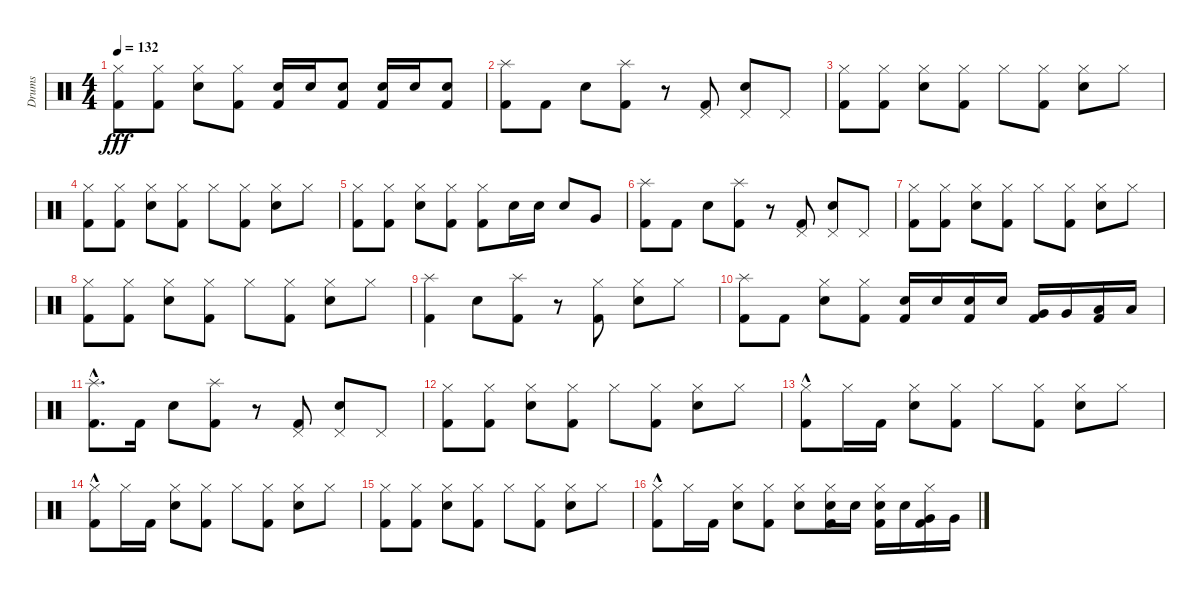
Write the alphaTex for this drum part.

\track ("Drums" "Drums") {instrument percussion}
\staff {score}
\articulation defaults
\ts (4 4)
\tempo 132
\clef neutral
\ks c
("Hi-Hat (closed)" "Kick (hit) 2").8{dy fff} ("Hi-Hat (closed)" "Kick (hit) 2").8 ("Hi-Hat (closed)" "Electric Snare (hit)").8 ("Hi-Hat (closed)" "Kick (hit) 2").8 ("Electric Snare (hit)" "Kick (hit) 2").16 "Electric Snare (hit)".16 ("Kick (hit) 2" "Electric Snare (hit)").8 ("Electric Snare (hit)" "Kick (hit) 2").16 "Electric Snare (hit)".16 ("Kick (hit) 2" "Electric Snare (hit)").8 |
("Kick (hit) 2" "Splash (hit)").8 "Kick (hit) 2".8 "Electric Snare (hit)".8 ("Splash (hit)" "Kick (hit) 2").8 r.8 ("Kick (hit) 2" "Pedal Hi-Hat (hit)").8 ("Electric Snare (hit)" "Pedal Hi-Hat (hit)").8 "Pedal Hi-Hat (hit)".8 |
("Hi-Hat (closed)" "Kick (hit) 2").8 ("Hi-Hat (closed)" "Kick (hit) 2").8 ("Hi-Hat (closed)" "Electric Snare (hit)").8 ("Hi-Hat (closed)" "Kick (hit) 2").8 "Hi-Hat (closed)".8 ("Hi-Hat (closed)" "Kick (hit) 2").8 ("Hi-Hat (closed)" "Electric Snare (hit)").8 "Hi-Hat (closed)".8 |
("Hi-Hat (closed)" "Kick (hit) 2").8 ("Hi-Hat (closed)" "Kick (hit) 2").8 ("Hi-Hat (closed)" "Electric Snare (hit)").8 ("Hi-Hat (closed)" "Kick (hit) 2").8 "Hi-Hat (closed)".8 ("Hi-Hat (closed)" "Kick (hit) 2").8 ("Hi-Hat (closed)" "Electric Snare (hit)").8 "Hi-Hat (closed)".8 |
("Hi-Hat (closed)" "Kick (hit) 2").8 ("Hi-Hat (closed)" "Kick (hit) 2").8 ("Hi-Hat (closed)" "Electric Snare (hit)").8 ("Hi-Hat (closed)" "Kick (hit) 2").8 ("Kick (hit) 2" "Hi-Hat (closed)").8 "Electric Snare (hit)".16 "Electric Snare (hit)".16 "Electric Snare (hit)".8 "Very Low Tom (hit)".8 |
("Kick (hit) 2" "Splash (hit)").8 "Kick (hit) 2".8 "Electric Snare (hit)".8 ("Splash (hit)" "Kick (hit) 2").8 r.8 ("Kick (hit) 2" "Pedal Hi-Hat (hit)").8 ("Electric Snare (hit)" "Pedal Hi-Hat (hit)").8 "Pedal Hi-Hat (hit)".8 |
("Hi-Hat (closed)" "Kick (hit) 2").8 ("Hi-Hat (closed)" "Kick (hit) 2").8 ("Hi-Hat (closed)" "Electric Snare (hit)").8 ("Hi-Hat (closed)" "Kick (hit) 2").8 "Hi-Hat (closed)".8 ("Hi-Hat (closed)" "Kick (hit) 2").8 ("Hi-Hat (closed)" "Electric Snare (hit)").8 "Hi-Hat (closed)".8 |
("Hi-Hat (closed)" "Kick (hit) 2").8 ("Hi-Hat (closed)" "Kick (hit) 2").8 ("Hi-Hat (closed)" "Electric Snare (hit)").8 ("Hi-Hat (closed)" "Kick (hit) 2").8 "Hi-Hat (closed)".8 ("Hi-Hat (closed)" "Kick (hit) 2").8 ("Hi-Hat (closed)" "Electric Snare (hit)").8 "Hi-Hat (closed)".8 |
("Splash (hit)" "Kick (hit) 2").4 "Electric Snare (hit)".8 ("Splash (hit)" "Kick (hit) 2").8 r.8 ("Kick (hit) 2" "Hi-Hat (closed)").8 ("Electric Snare (hit)" "Hi-Hat (closed)").8 "Hi-Hat (closed)".8 |
("Splash (hit)" "Kick (hit) 2").8 "Kick (hit) 2".8 ("Hi-Hat (closed)" "Electric Snare (hit)").8 ("Hi-Hat (closed)" "Kick (hit) 2").8 ("Kick (hit) 2" "Electric Snare (hit)").16 "Electric Snare (hit)".16 ("Kick (hit) 2" "Electric Snare (hit)").16 "Electric Snare (hit)".16 ("Very Low Tom (hit)" "Kick (hit) 2").16 "Very Low Tom (hit)".16 ("Low Floor Tom (hit)" "Kick (hit) 2").16 "Low Floor Tom (hit)".16 |
("Kick (hit) 2"{hac} "Splash (hit)"{hac}).8{d} "Kick (hit) 2".16 "Electric Snare (hit)".8 ("Splash (hit)" "Kick (hit) 2").8 r.8 ("Kick (hit) 2" "Pedal Hi-Hat (hit)").8 ("Electric Snare (hit)" "Pedal Hi-Hat (hit)").8 "Pedal Hi-Hat (hit)".8 |
("Hi-Hat (closed)" "Kick (hit) 2").8 ("Hi-Hat (closed)" "Kick (hit) 2").8 ("Hi-Hat (closed)" "Electric Snare (hit)").8 ("Hi-Hat (closed)" "Kick (hit) 2").8 "Hi-Hat (closed)".8 ("Hi-Hat (closed)" "Kick (hit) 2").8 ("Hi-Hat (closed)" "Electric Snare (hit)").8 "Hi-Hat (closed)".8 |
("Hi-Hat (closed)" "Kick (hit) 2"{hac}).8 "Hi-Hat (closed)".16 "Kick (hit) 2".16 ("Hi-Hat (closed)" "Electric Snare (hit)").8 ("Hi-Hat (closed)" "Kick (hit) 2").8 "Hi-Hat (closed)".8 ("Hi-Hat (closed)" "Kick (hit) 2").8 ("Hi-Hat (closed)" "Electric Snare (hit)").8 "Hi-Hat (closed)".8 |
("Kick (hit) 2"{hac} "Hi-Hat (closed)").8 "Hi-Hat (closed)".16 "Kick (hit) 2".16 ("Electric Snare (hit)" "Hi-Hat (closed)").8 ("Kick (hit) 2" "Hi-Hat (closed)").8 "Hi-Hat (closed)".8 ("Kick (hit) 2" "Hi-Hat (closed)").8 ("Electric Snare (hit)" "Hi-Hat (closed)").8 "Hi-Hat (closed)".8 |
("Kick (hit) 2" "Hi-Hat (closed)").8 ("Kick (hit) 2" "Hi-Hat (closed)").8 ("Electric Snare (hit)" "Hi-Hat (closed)").8 ("Kick (hit) 2" "Hi-Hat (closed)").8 "Hi-Hat (closed)".8 ("Kick (hit) 2" "Hi-Hat (closed)").8 ("Electric Snare (hit)" "Hi-Hat (closed)").8 "Hi-Hat (closed)".8 |
("Kick (hit) 2"{hac} "Hi-Hat (closed)").8 "Hi-Hat (closed)".16 "Kick (hit) 2".16 ("Electric Snare (hit)" "Hi-Hat (closed)").8 ("Kick (hit) 2" "Hi-Hat (closed)").8 ("Electric Snare (hit)" "Hi-Hat (closed)").8 ("Kick (hit) 2" "Electric Snare (hit)" "Hi-Hat (closed)").16 "Electric Snare (hit)".16 ("Hi-Hat (closed)" "Kick (hit) 2" "Electric Snare (hit)").16 "Electric Snare (hit)".16 ("Hi-Hat (closed)" "Kick (hit) 2" "Very Low Tom (hit)").16 "Very Low Tom (hit)".16
